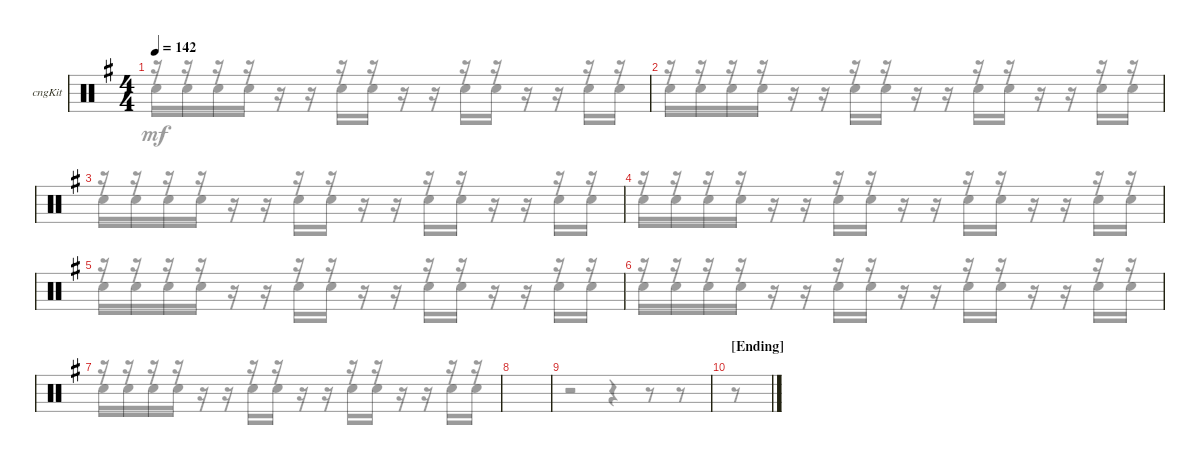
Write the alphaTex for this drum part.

\bracketExtendMode groupsimilarinstruments
\firstSystemTrackNameOrientation horizontal
\otherSystemsTrackNameOrientation horizontal
\track ("Congas" "cngKit") {instrument percussion}
\staff {score}
\articulation defaults
\voice
\ts (4 4)
\tempo 142
\clef neutral
\ks eminor
|
|
|
|
|
|
|
|
|
\section ("" "[Ending] ")
|
\voice
\clef neutral
\ks eminor
r.16{dy mf} r.16 r.16 r.16 r.16 r.16 r.16 r.16 r.16 r.16 r.16 r.16 r.16 r.16 r.16 r.16 |
r.16 r.16 r.16 r.16 r.16 r.16 r.16 r.16 r.16 r.16 r.16 r.16 r.16 r.16 r.16 r.16 |
r.16 r.16 r.16 r.16 r.16 r.16 r.16 r.16 r.16 r.16 r.16 r.16 r.16 r.16 r.16 r.16 |
r.16 r.16 r.16 r.16 r.16 r.16 r.16 r.16 r.16 r.16 r.16 r.16 r.16 r.16 r.16 r.16 |
r.16 r.16 r.16 r.16 r.16 r.16 r.16 r.16 r.16 r.16 r.16 r.16 r.16 r.16 r.16 r.16 |
r.16 r.16 r.16 r.16 r.16 r.16 r.16 r.16 r.16 r.16 r.16 r.16 r.16 r.16 r.16 r.16 |
r.16 r.16 r.16 r.16 r.16 r.16 r.16 r.16 r.16 r.16 r.16 r.16 r.16 r.16 r.16 r.16 |
|
r.2 r.4 r.8 r.8 |
r.8 |
\voice
\clef neutral
\ottava regular
\simile none
\ks eminor "Snare (hit) 2".16{dy mf} "Snare (hit) 2".16 "Snare (hit) 2".16 "Snare (hit) 2".16
r.16 r.16 "Snare (hit) 2".16 "Snare (hit) 2".16 r.16 r.16 "Snare (hit) 2".16 "Snare (hit) 2".16 r.16 r.16 "Snare (hit) 2".16 "Snare (hit) 2".16 |
"Snare (hit) 2".16 "Snare (hit) 2".16 "Snare (hit) 2".16 "Snare (hit) 2".16 r.16 r.16 "Snare (hit) 2".16 "Snare (hit) 2".16 r.16 r.16 "Snare (hit) 2".16 "Snare (hit) 2".16 r.16 r.16 "Snare (hit) 2".16 "Snare (hit) 2".16 |
"Snare (hit) 2".16 "Snare (hit) 2".16 "Snare (hit) 2".16 "Snare (hit) 2".16 r.16 r.16 "Snare (hit) 2".16 "Snare (hit) 2".16 r.16 r.16 "Snare (hit) 2".16 "Snare (hit) 2".16 r.16 r.16 "Snare (hit) 2".16 "Snare (hit) 2".16 |
"Snare (hit) 2".16 "Snare (hit) 2".16 "Snare (hit) 2".16 "Snare (hit) 2".16 r.16 r.16 "Snare (hit) 2".16 "Snare (hit) 2".16 r.16 r.16 "Snare (hit) 2".16 "Snare (hit) 2".16 r.16 r.16 "Snare (hit) 2".16 "Snare (hit) 2".16 |
"Snare (hit) 2".16 "Snare (hit) 2".16 "Snare (hit) 2".16 "Snare (hit) 2".16 r.16 r.16 "Snare (hit) 2".16 "Snare (hit) 2".16 r.16 r.16 "Snare (hit) 2".16 "Snare (hit) 2".16 r.16 r.16 "Snare (hit) 2".16 "Snare (hit) 2".16 |
"Snare (hit) 2".16 "Snare (hit) 2".16 "Snare (hit) 2".16 "Snare (hit) 2".16 r.16 r.16 "Snare (hit) 2".16 "Snare (hit) 2".16 r.16 r.16 "Snare (hit) 2".16 "Snare (hit) 2".16 r.16 r.16 "Snare (hit) 2".16 "Snare (hit) 2".16 |
"Snare (hit) 2".16 "Snare (hit) 2".16 "Snare (hit) 2".16 "Snare (hit) 2".16 r.16 r.16 "Snare (hit) 2".16 "Snare (hit) 2".16 r.16 r.16 "Snare (hit) 2".16 "Snare (hit) 2".16 r.16 r.16 "Snare (hit) 2".16 "Snare (hit) 2".16 |
|
|
|
